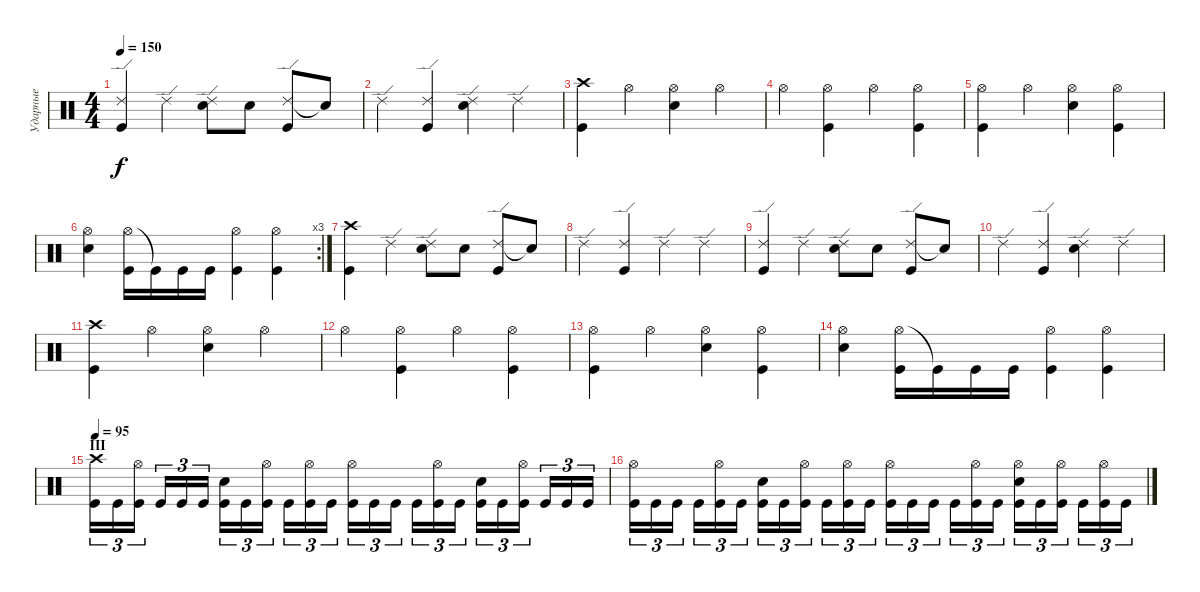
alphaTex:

\track ("Ударные" "Ударные") {instrument percussion}
\staff {score}
\articulation defaults
\ts (4 4)
\tempo 150
\clef neutral
\ks c
("Ride (edge) 2" "Kick (hit)").4{dy f} "Ride (edge) 2".4 ("Ride (edge) 2" "Snare (hit) 2").8 "Snare (hit) 2".8 ("Ride (edge) 2" "Kick (hit)").8 "Snare (hit)"{t}.8 |
"Ride (edge) 2".4 ("Ride (edge) 2" "Kick (hit)").4 ("Ride (edge) 2" "Snare (hit) 2").4 "Ride (edge) 2".4 |
("Crash high (hit)" "Kick (hit)").4 "Hi-Hat (open)".4 ("Hi-Hat (open)" "Snare (hit) 2").4 "Hi-Hat (open)".4 |
"Hi-Hat (open)".4 ("Hi-Hat (open)" "Kick (hit)").4 "Hi-Hat (open)".4 ("Hi-Hat (open)" "Kick (hit)").4 |
("Hi-Hat (open)" "Kick (hit)").4 "Hi-Hat (open)".4 ("Hi-Hat (open)" "Snare (hit) 2").4 ("Hi-Hat (open)" "Kick (hit)").4 |
\rc 3
("Hi-Hat (open)" "Snare (hit) 2").4 ("Hi-Hat (open)" "Kick (hit)").16 "Kick (hit)"{t}.16 "Kick (hit)".16 "Kick (hit)".16 ("Hi-Hat (open)" "Kick (hit)").4 ("Hi-Hat (open)" "Kick (hit)").4 |
("Crash high (hit)" "Kick (hit)").4 "Ride (edge) 2".4 ("Ride (edge) 2" "Snare (hit) 2").8 "Snare (hit) 2".8 ("Ride (edge) 2" "Kick (hit)").8 "Snare (hit)"{t}.8 |
"Ride (edge) 2".4 ("Ride (edge) 2" "Kick (hit)").4 "Ride (edge) 2".4 "Ride (edge) 2".4 |
("Ride (edge) 2" "Kick (hit)").4 "Ride (edge) 2".4 ("Ride (edge) 2" "Snare (hit) 2").8 "Snare (hit) 2".8 ("Ride (edge) 2" "Kick (hit)").8 "Snare (hit)"{t}.8 |
"Ride (edge) 2".4 ("Ride (edge) 2" "Kick (hit)").4 ("Ride (edge) 2" "Snare (hit) 2").4 "Ride (edge) 2".4 |
("Crash high (hit)" "Kick (hit)").4 "Hi-Hat (open)".4 ("Hi-Hat (open)" "Snare (hit) 2").4 "Hi-Hat (open)".4 |
"Hi-Hat (open)".4 ("Hi-Hat (open)" "Kick (hit)").4 "Hi-Hat (open)".4 ("Hi-Hat (open)" "Kick (hit)").4 |
("Hi-Hat (open)" "Kick (hit)").4 "Hi-Hat (open)".4 ("Hi-Hat (open)" "Snare (hit) 2").4 ("Hi-Hat (open)" "Kick (hit)").4 |
("Hi-Hat (open)" "Snare (hit) 2").4 ("Hi-Hat (open)" "Kick (hit)").16 "Kick (hit)"{t}.16 "Kick (hit)".16 "Kick (hit)".16 ("Hi-Hat (open)" "Kick (hit)").4 ("Hi-Hat (open)" "Kick (hit)").4 |
\section ("" "III")
\tempo 95
("Crash high (hit)" "Kick (hit)").16{tu (3 2)} "Kick (hit)".16{tu (3 2)} ("Hi-Hat (open)" "Kick (hit)").16{tu (3 2) beam splitsecondary} "Kick (hit)".16{tu (3 2)} "Kick (hit)".16{tu (3 2)} "Kick (hit)".16{tu (3 2)} ("Snare (hit) 2" "Kick (hit)").16{tu (3 2)} "Kick (hit)".16{tu (3 2)} ("Hi-Hat (open)" "Kick (hit)").16{tu (3 2) beam splitsecondary} "Kick (hit)".16{tu (3 2)} ("Hi-Hat (open)" "Kick (hit)").16{tu (3 2)} "Kick (hit)".16{tu (3 2)} ("Hi-Hat (open)" "Kick (hit)").16{tu (3 2)} "Kick (hit)".16{tu (3 2)} "Kick (hit)".16{tu (3 2) beam splitsecondary} "Kick (hit)".16{tu (3 2)} ("Hi-Hat (open)" "Kick (hit)").16{tu (3 2)} "Kick (hit)".16{tu (3 2)} ("Snare (hit) 2" "Kick (hit)").16{tu (3 2)} "Kick (hit)".16{tu (3 2)} ("Hi-Hat (open)" "Kick (hit)").16{tu (3 2) beam splitsecondary} "Kick (hit)".16{tu (3 2)} "Kick (hit)".16{tu (3 2)} "Kick (hit)".16{tu (3 2)} |
("Hi-Hat (open)" "Kick (hit)").16{tu (3 2)} "Kick (hit)".16{tu (3 2)} "Kick (hit)".16{tu (3 2) beam splitsecondary} "Kick (hit)".16{tu (3 2)} ("Hi-Hat (open)" "Kick (hit)").16{tu (3 2)} "Kick (hit)".16{tu (3 2)} ("Snare (hit) 2" "Kick (hit)").16{tu (3 2)} "Kick (hit)".16{tu (3 2)} ("Hi-Hat (open)" "Kick (hit)").16{tu (3 2) beam splitsecondary} "Kick (hit)".16{tu (3 2)} ("Hi-Hat (open)" "Kick (hit)").16{tu (3 2)} "Kick (hit)".16{tu (3 2)} ("Hi-Hat (open)" "Kick (hit)").16{tu (3 2)} "Kick (hit)".16{tu (3 2)} "Kick (hit)".16{tu (3 2) beam splitsecondary} "Kick (hit)".16{tu (3 2)} ("Hi-Hat (open)" "Kick (hit)").16{tu (3 2)} "Kick (hit)".16{tu (3 2)} ("Hi-Hat (open)" "Snare (hit) 2" "Kick (hit)").16{tu (3 2)} "Kick (hit)".16{tu (3 2)} ("Hi-Hat (open)" "Kick (hit)").16{tu (3 2) beam splitsecondary} "Kick (hit)".16{tu (3 2)} ("Hi-Hat (open)" "Kick (hit)").16{tu (3 2)} "Kick (hit)".16{tu (3 2)}
